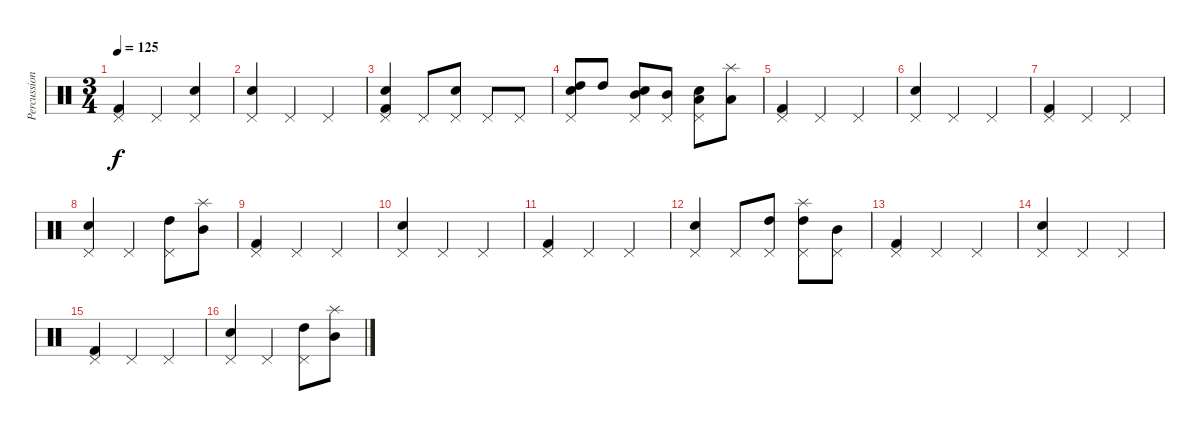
\track ("Percussion" "Percussion") {instrument percussion}
\staff {score}
\articulation defaults
\ts (3 4)
\tempo 125
\clef neutral
\ks c
("Kick (hit) 2" "Pedal Hi-Hat (hit)").4{dy f} "Pedal Hi-Hat (hit)".4 ("Pedal Hi-Hat (hit)" "Snare (hit) 2").4 |
("Pedal Hi-Hat (hit)" "Snare (hit) 2").4 "Pedal Hi-Hat (hit)".4 "Pedal Hi-Hat (hit)".4 |
("Kick (hit) 2" "Pedal Hi-Hat (hit)" "Snare (hit) 2").4 "Pedal Hi-Hat (hit)".8 ("Pedal Hi-Hat (hit)" "Snare (hit) 2").8 "Pedal Hi-Hat (hit)".8 "Pedal Hi-Hat (hit)".8 |
("Pedal Hi-Hat (hit)" "Snare (hit) 2" "High Tom (hit)").8 "High Tom (hit)".8 ("Pedal Hi-Hat (hit)" "Snare (hit) 2" "Mid Tom (hit)").8 ("Pedal Hi-Hat (hit)" "Mid Tom (hit)").8 ("Pedal Hi-Hat (hit)" "Low Tom (hit)" "Snare (hit) 2").8 ("Low Tom (hit)" "Splash (hit)").8 |
("Kick (hit) 2" "Pedal Hi-Hat (hit)").4 "Pedal Hi-Hat (hit)".4 "Pedal Hi-Hat (hit)".4 |
("Pedal Hi-Hat (hit)" "Snare (hit) 2").4 "Pedal Hi-Hat (hit)".4 "Pedal Hi-Hat (hit)".4 |
("Kick (hit) 2" "Pedal Hi-Hat (hit)").4 "Pedal Hi-Hat (hit)".4 "Pedal Hi-Hat (hit)".4 |
("Pedal Hi-Hat (hit)" "Snare (hit) 2").4 "Pedal Hi-Hat (hit)".4 ("Pedal Hi-Hat (hit)" "High Tom (hit)").8 ("Mid Tom (hit)" "Splash (hit)").8 |
("Kick (hit) 2" "Pedal Hi-Hat (hit)").4 "Pedal Hi-Hat (hit)".4 "Pedal Hi-Hat (hit)".4 |
("Pedal Hi-Hat (hit)" "Snare (hit) 2").4 "Pedal Hi-Hat (hit)".4 "Pedal Hi-Hat (hit)".4 |
("Kick (hit) 2" "Pedal Hi-Hat (hit)").4 "Pedal Hi-Hat (hit)".4 "Pedal Hi-Hat (hit)".4 |
("Pedal Hi-Hat (hit)" "Snare (hit) 2").4 "Pedal Hi-Hat (hit)".8 ("Pedal Hi-Hat (hit)" "High Tom (hit)").8 ("Pedal Hi-Hat (hit)" "High Tom (hit)" "Splash (hit)").8 ("Pedal Hi-Hat (hit)" "Mid Tom (hit)").8 |
("Kick (hit) 2" "Pedal Hi-Hat (hit)").4 "Pedal Hi-Hat (hit)".4 "Pedal Hi-Hat (hit)".4 |
("Pedal Hi-Hat (hit)" "Snare (hit) 2").4 "Pedal Hi-Hat (hit)".4 "Pedal Hi-Hat (hit)".4 |
("Kick (hit) 2" "Pedal Hi-Hat (hit)").4 "Pedal Hi-Hat (hit)".4 "Pedal Hi-Hat (hit)".4 |
("Pedal Hi-Hat (hit)" "Snare (hit) 2").4 "Pedal Hi-Hat (hit)".4 ("Pedal Hi-Hat (hit)" "High Tom (hit)").8 ("Mid Tom (hit)" "Splash (hit)").8
